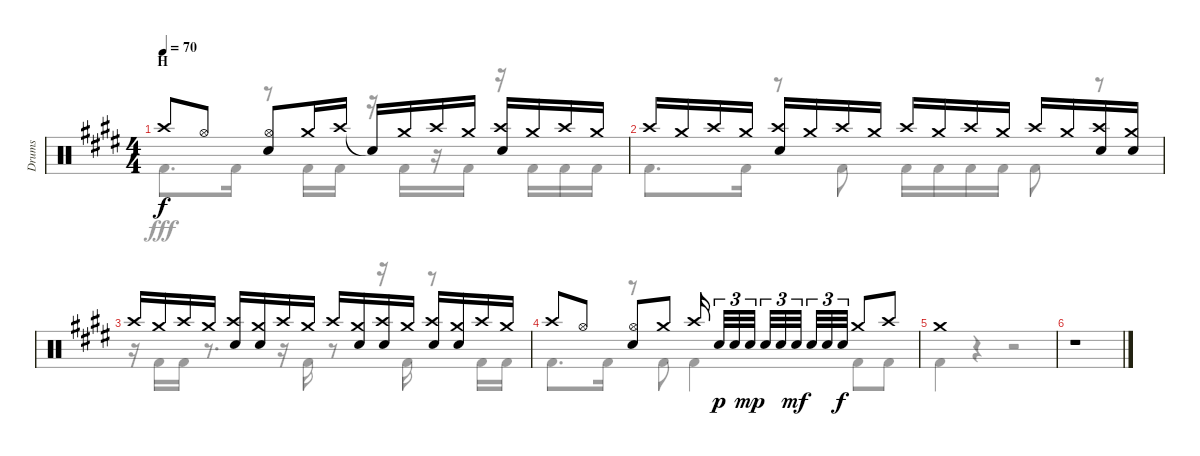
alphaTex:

\track ("Drums" "Drums") {instrument percussion}
\staff {score}
\articulation defaults
\voice
\ts (4 4)
\section ("" "H")
\tempo 70
\clef neutral
\ks e "Crash high (hit)".8{dy f} "Hi-Hat (open)".8
("Hi-Hat (open)" "Snare (hit) 2").8 "Crash medium (hit)".16 "Crash high (hit)".16 "Snare (hit)"{t}.16 "Crash medium (hit)".16 "Crash high (hit)".16 "Crash medium (hit)".16 ("Crash high (hit)" "Snare (hit) 2").16 "Crash medium (hit)".16 "Crash high (hit)".16 "Crash medium (hit)".16 |
"Crash high (hit)".16 "Crash medium (hit)".16 "Crash high (hit)".16 "Crash medium (hit)".16 ("Crash high (hit)" "Snare (hit) 2").16 "Crash medium (hit)".16 "Crash high (hit)".16 "Crash medium (hit)".16 "Crash high (hit)".16 "Crash medium (hit)".16 "Crash high (hit)".16 "Crash medium (hit)".16 "Crash high (hit)".16 "Crash medium (hit)".16 ("Crash high (hit)" "Snare (hit) 2").16 ("Crash medium (hit)" "Snare (hit) 2").16 |
"Crash high (hit)".16 "Crash medium (hit)".16 "Crash high (hit)".16 "Crash medium (hit)".16 ("Crash high (hit)" "Snare (hit) 2").16 ("Crash medium (hit)" "Snare (hit) 2").16 "Crash high (hit)".16 "Crash medium (hit)".16 "Crash high (hit)".16 ("Crash medium (hit)" "Snare (hit) 2").16 ("Crash high (hit)" "Snare (hit) 2").16 "Crash medium (hit)".16 ("Crash high (hit)" "Snare (hit) 2").16 ("Crash medium (hit)" "Snare (hit) 2").16 "Crash high (hit)".16 "Crash medium (hit)".16 |
"Crash high (hit)".8 "Hi-Hat (open)".8 ("Hi-Hat (open)" "Snare (hit) 2").8 "Crash medium (hit)".8 "Crash high (hit)".16{beam splitsecondary} "Snare (hit) 2".32{tu (3 2) dy p} "Snare (hit) 2".32{tu (3 2)} "Snare (hit) 2".32{tu (3 2) dy mp beam splitsecondary} "Snare (hit) 2".32{tu (3 2)} "Snare (hit) 2".32{tu (3 2)} "Snare (hit) 2".32{tu (3 2) dy mf beam splitsecondary} "Snare (hit) 2".32{tu (3 2)} "Snare (hit) 2".32{tu (3 2)} "Snare (hit) 2".32{tu (3 2) dy f} "Crash medium (hit)".8 "Crash high (hit)".8 |
"Crash medium (hit)".1 |
r.1
\voice
\clef neutral
\ottava regular
\simile none
\ks e "Kick (hit) 2".8{d dy fff} "Kick (hit) 2".16
r.8 "Kick (hit) 2".16 "Kick (hit) 2".16 r.16 "Kick (hit) 2".16 r.16 "Kick (hit) 2".16 r.16 "Kick (hit) 2".16 "Kick (hit) 2".16 "Kick (hit) 2".16 |
"Kick (hit) 2".8{d} "Kick (hit) 2".16 r.8 "Kick (hit) 2".8 "Kick (hit) 2".16 "Kick (hit) 2".16 "Kick (hit) 2".16 "Kick (hit) 2".16 "Kick (hit) 2".8 r.8 |
r.16 "Kick (hit) 2".16 "Kick (hit) 2".16 r.8{d} r.16 "Kick (hit) 2".16 r.8 r.16 "Kick (hit) 2".16 r.8 "Kick (hit) 2".16 "Kick (hit) 2".16 |
"Kick (hit) 2".8{d} "Kick (hit) 2".16 r.8 "Kick (hit) 2".8 "Kick (hit) 2".4 "Kick (hit) 2".8 "Kick (hit) 2".8 |
"Kick (hit) 2".4 r.4 r.2 |
r.1
